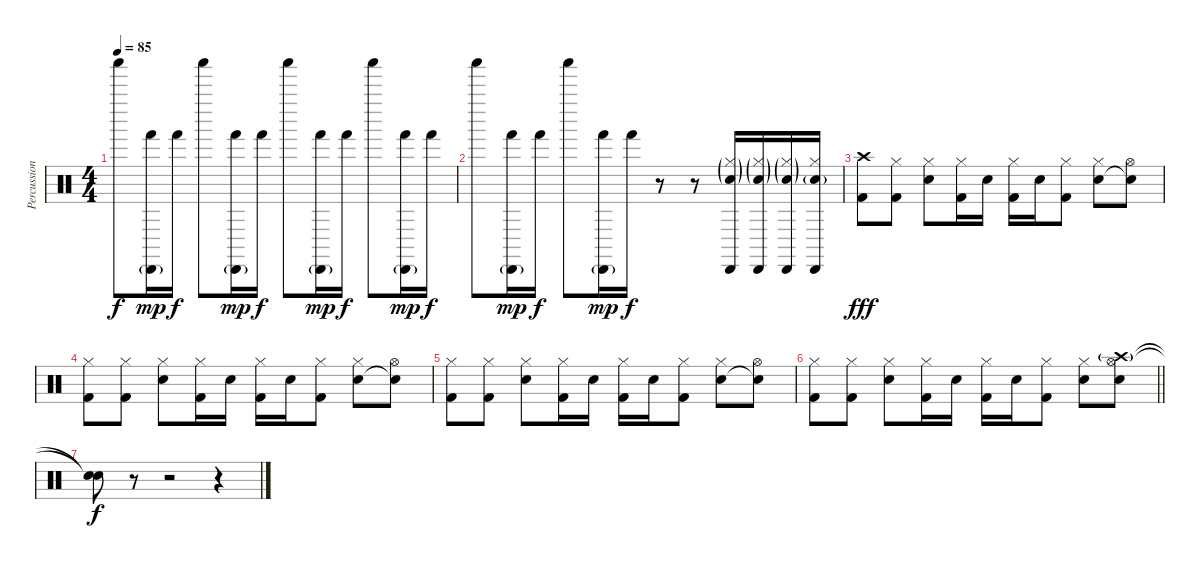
\track ("Percussion" "Percussion") {instrument percussion}
\staff {score}
\articulation defaults
\ts (4 4)
\tempo 85
\clef neutral
\ks c "Shaker (hit)".8{dy f}
("Cabasa (hit)"{g} "Hand (hit)").16{dy mp} "Hand (hit)".16{dy f} "Shaker (hit)".8 ("Cabasa (hit)"{g} "Hand (hit)").16{dy mp} "Hand (hit)".16{dy f} "Shaker (hit)".8 ("Cabasa (hit)"{g} "Hand (hit)").16{dy mp} "Hand (hit)".16{dy f} "Shaker (hit)".8 ("Cabasa (hit)"{g} "Hand (hit)").16{dy mp} "Hand (hit)".16{dy f} |
"Shaker (hit)".8 ("Cabasa (hit)"{g} "Hand (hit)").16{dy mp} "Hand (hit)".16{dy f} "Shaker (hit)".8 ("Cabasa (hit)"{g} "Hand (hit)").16{dy mp} "Hand (hit)".16{dy f} r.8 r.8 ("Hi-Hat (closed)"{g} "Cabasa (hit)" "Electric Snare (hit)"{g}).16 ("Hi-Hat (closed)"{g} "Cabasa (hit)" "Electric Snare (hit)"{g}).16 ("Hi-Hat (closed)"{g} "Cabasa (hit)" "Electric Snare (hit)"{g}).16 ("Hi-Hat (closed)" "Cabasa (hit)" "Electric Snare (hit)"{g}).16 |
("Crash high (hit)" "Kick (hit) 2").8{dy fff volume 16} ("Hi-Hat (closed)" "Kick (hit) 2").8 ("Hi-Hat (closed)" "Electric Snare (hit)").8 ("Hi-Hat (closed)" "Kick (hit) 2").16 "Electric Snare (hit)".16 ("Hi-Hat (closed)" "Kick (hit) 2").16 "Electric Snare (hit)".16 ("Hi-Hat (closed)" "Kick (hit) 2").8 ("Hi-Hat (closed)" "Electric Snare (hit)").8 ("Hi-Hat (open)" "Snare (hit)"{t}).8 |
("Hi-Hat (closed)" "Kick (hit) 2").8 ("Hi-Hat (closed)" "Kick (hit) 2").8 ("Hi-Hat (closed)" "Electric Snare (hit)").8 ("Hi-Hat (closed)" "Kick (hit) 2").16 "Electric Snare (hit)".16 ("Hi-Hat (closed)" "Kick (hit) 2").16 "Electric Snare (hit)".16 ("Hi-Hat (closed)" "Kick (hit) 2").8 ("Hi-Hat (closed)" "Electric Snare (hit)").8 ("Hi-Hat (open)" "Snare (hit)"{t}).8 |
("Hi-Hat (closed)" "Kick (hit) 2").8 ("Hi-Hat (closed)" "Kick (hit) 2").8 ("Hi-Hat (closed)" "Electric Snare (hit)").8 ("Hi-Hat (closed)" "Kick (hit) 2").16 "Electric Snare (hit)".16 ("Hi-Hat (closed)" "Kick (hit) 2").16 "Electric Snare (hit)".16 ("Hi-Hat (closed)" "Kick (hit) 2").8 ("Hi-Hat (closed)" "Electric Snare (hit)").8 ("Hi-Hat (open)" "Snare (hit)"{t}).8 |
\barLineRight lightlight
("Hi-Hat (closed)" "Kick (hit) 2").8 ("Hi-Hat (closed)" "Kick (hit) 2").8 ("Hi-Hat (closed)" "Electric Snare (hit)").8 ("Hi-Hat (closed)" "Kick (hit) 2").16 "Electric Snare (hit)".16 ("Hi-Hat (closed)" "Kick (hit) 2").16 "Electric Snare (hit)".16 ("Hi-Hat (closed)" "Kick (hit) 2").8 ("Hi-Hat (closed)" "Electric Snare (hit)").8 ("Crash high (hit)"{g} "Hi-Hat (open)" "Snare (hit)").8 |
("Snare (hit)"{t} "Snare (hit)"{t}).8{dy f} r.8 r.2 r.4
